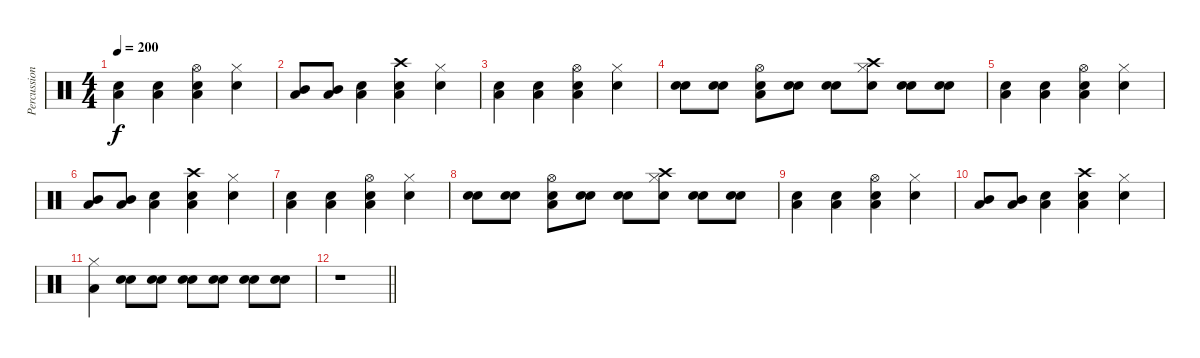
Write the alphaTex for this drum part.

\track ("Percussion" "Percussion") {instrument percussion}
\staff {score}
\articulation defaults
\ts (4 4)
\tempo 200
\clef neutral
\ks c
("Electric Snare (hit)" "Low Tom (hit)").4{dy f} ("Electric Snare (hit)" "Low Tom (hit)").4 ("Snare (hit) 2" "Low Tom (hit)" "Hi-Hat (open)").4 ("Electric Snare (hit)" "Hi-Hat (closed)").4 |
("Mid Tom (hit)" "Low Tom (hit)").8 ("Mid Tom (hit)" "Low Tom (hit)").8 ("Snare (hit) 2" "Low Tom (hit)").4 ("Electric Snare (hit)" "Low Tom (hit)" "Crash high (hit)").4 ("Electric Snare (hit)" "Hi-Hat (closed)").4 |
("Electric Snare (hit)" "Low Tom (hit)").4 ("Electric Snare (hit)" "Low Tom (hit)").4 ("Snare (hit) 2" "Low Tom (hit)" "Hi-Hat (open)").4 ("Electric Snare (hit)" "Hi-Hat (closed)").4 |
("Snare (hit) 2" "Electric Snare (hit)").8 ("Snare (hit) 2" "Electric Snare (hit)").8 ("Electric Snare (hit)" "Low Tom (hit)" "Hi-Hat (open)").8 ("Snare (hit) 2" "Electric Snare (hit)").8 ("Snare (hit) 2" "Electric Snare (hit)").8 ("Electric Snare (hit)" "Hi-Hat (closed)" "Crash high (hit)").8 ("Snare (hit) 2" "Electric Snare (hit)").8 ("Snare (hit) 2" "Electric Snare (hit)").8 |
("Electric Snare (hit)" "Low Tom (hit)").4 ("Electric Snare (hit)" "Low Tom (hit)").4 ("Snare (hit) 2" "Low Tom (hit)" "Hi-Hat (open)").4 ("Electric Snare (hit)" "Hi-Hat (closed)").4 |
("Mid Tom (hit)" "Low Tom (hit)").8 ("Mid Tom (hit)" "Low Tom (hit)").8 ("Snare (hit) 2" "Low Tom (hit)").4 ("Electric Snare (hit)" "Low Tom (hit)" "Crash high (hit)").4 ("Electric Snare (hit)" "Hi-Hat (closed)").4 |
("Electric Snare (hit)" "Low Tom (hit)").4 ("Electric Snare (hit)" "Low Tom (hit)").4 ("Snare (hit) 2" "Low Tom (hit)" "Hi-Hat (open)").4 ("Electric Snare (hit)" "Hi-Hat (closed)").4 |
("Snare (hit) 2" "Electric Snare (hit)").8 ("Snare (hit) 2" "Electric Snare (hit)").8 ("Electric Snare (hit)" "Low Tom (hit)" "Hi-Hat (open)").8 ("Snare (hit) 2" "Electric Snare (hit)").8 ("Snare (hit) 2" "Electric Snare (hit)").8 ("Electric Snare (hit)" "Hi-Hat (closed)" "Crash high (hit)").8 ("Snare (hit) 2" "Electric Snare (hit)").8 ("Snare (hit) 2" "Electric Snare (hit)").8 |
("Electric Snare (hit)" "Low Tom (hit)").4 ("Electric Snare (hit)" "Low Tom (hit)").4 ("Snare (hit) 2" "Low Tom (hit)" "Hi-Hat (open)").4 ("Electric Snare (hit)" "Hi-Hat (closed)").4 |
("Mid Tom (hit)" "Low Tom (hit)").8 ("Mid Tom (hit)" "Low Tom (hit)").8 ("Snare (hit) 2" "Low Tom (hit)").4 ("Electric Snare (hit)" "Low Tom (hit)" "Crash high (hit)").4 ("Electric Snare (hit)" "Hi-Hat (closed)").4 |
("Hi-Hat (closed)" "Low Tom (hit)").4 ("Snare (hit) 2" "Electric Snare (hit)").8 ("Snare (hit) 2" "Electric Snare (hit)").8 ("Snare (hit) 2" "Electric Snare (hit)").8 ("Snare (hit) 2" "Electric Snare (hit)").8 ("Snare (hit) 2" "Electric Snare (hit)").8 ("Snare (hit) 2" "Electric Snare (hit)").8 |
\barLineRight lightlight
r.1
